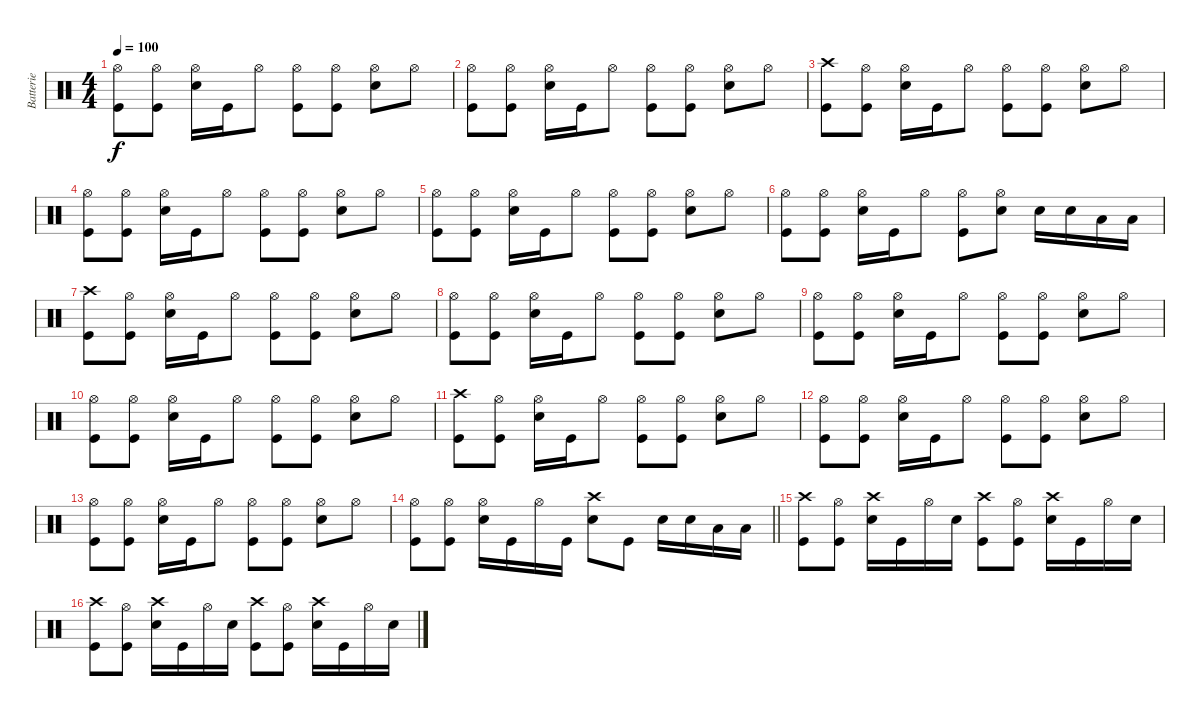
\track ("Batterie" "Batterie") {instrument percussion}
\staff {score}
\articulation defaults
\ts (4 4)
\tempo 100
\clef neutral
\ks c
("Hi-Hat (open)" "Kick (hit)").8{dy f} ("Hi-Hat (open)" "Kick (hit)").8 ("Hi-Hat (open)" "Electric Snare (hit)").16 "Kick (hit)".16 "Hi-Hat (open)".8 ("Hi-Hat (open)" "Kick (hit)").8 ("Hi-Hat (open)" "Kick (hit)").8 ("Hi-Hat (open)" "Electric Snare (hit)").8 "Hi-Hat (open)".8 |
("Hi-Hat (open)" "Kick (hit)").8 ("Hi-Hat (open)" "Kick (hit)").8 ("Hi-Hat (open)" "Electric Snare (hit)").16 "Kick (hit)".16 "Hi-Hat (open)".8 ("Hi-Hat (open)" "Kick (hit)").8 ("Hi-Hat (open)" "Kick (hit)").8 ("Hi-Hat (open)" "Electric Snare (hit)").8 "Hi-Hat (open)".8 |
("Crash high (hit)" "Kick (hit)").8 ("Hi-Hat (open)" "Kick (hit)").8 ("Hi-Hat (open)" "Electric Snare (hit)").16 "Kick (hit)".16 "Hi-Hat (open)".8 ("Hi-Hat (open)" "Kick (hit)").8 ("Hi-Hat (open)" "Kick (hit)").8 ("Hi-Hat (open)" "Electric Snare (hit)").8 "Hi-Hat (open)".8 |
("Hi-Hat (open)" "Kick (hit)").8 ("Hi-Hat (open)" "Kick (hit)").8 ("Hi-Hat (open)" "Electric Snare (hit)").16 "Kick (hit)".16 "Hi-Hat (open)".8 ("Hi-Hat (open)" "Kick (hit)").8 ("Hi-Hat (open)" "Kick (hit)").8 ("Hi-Hat (open)" "Electric Snare (hit)").8 "Hi-Hat (open)".8 |
("Hi-Hat (open)" "Kick (hit)").8 ("Hi-Hat (open)" "Kick (hit)").8 ("Hi-Hat (open)" "Electric Snare (hit)").16 "Kick (hit)".16 "Hi-Hat (open)".8 ("Hi-Hat (open)" "Kick (hit)").8 ("Hi-Hat (open)" "Kick (hit)").8 ("Hi-Hat (open)" "Electric Snare (hit)").8 "Hi-Hat (open)".8 |
("Hi-Hat (open)" "Kick (hit)").8 ("Hi-Hat (open)" "Kick (hit)").8 ("Hi-Hat (open)" "Electric Snare (hit)").16 "Kick (hit)".16 "Hi-Hat (open)".8 ("Hi-Hat (open)" "Kick (hit)").8 ("Hi-Hat (open)" "Electric Snare (hit)").8 "Electric Snare (hit)".16 "Electric Snare (hit)".16 "Low Tom (hit)".16 "Low Tom (hit)".16 |
("Crash high (hit)" "Kick (hit)").8 ("Hi-Hat (open)" "Kick (hit)").8 ("Hi-Hat (open)" "Electric Snare (hit)").16 "Kick (hit)".16 "Hi-Hat (open)".8 ("Hi-Hat (open)" "Kick (hit)").8 ("Hi-Hat (open)" "Kick (hit)").8 ("Hi-Hat (open)" "Electric Snare (hit)").8 "Hi-Hat (open)".8 |
("Hi-Hat (open)" "Kick (hit)").8 ("Hi-Hat (open)" "Kick (hit)").8 ("Hi-Hat (open)" "Electric Snare (hit)").16 "Kick (hit)".16 "Hi-Hat (open)".8 ("Hi-Hat (open)" "Kick (hit)").8 ("Hi-Hat (open)" "Kick (hit)").8 ("Hi-Hat (open)" "Electric Snare (hit)").8 "Hi-Hat (open)".8 |
("Hi-Hat (open)" "Kick (hit)").8 ("Hi-Hat (open)" "Kick (hit)").8 ("Hi-Hat (open)" "Electric Snare (hit)").16 "Kick (hit)".16 "Hi-Hat (open)".8 ("Hi-Hat (open)" "Kick (hit)").8 ("Hi-Hat (open)" "Kick (hit)").8 ("Hi-Hat (open)" "Electric Snare (hit)").8 "Hi-Hat (open)".8 |
("Hi-Hat (open)" "Kick (hit)").8 ("Hi-Hat (open)" "Kick (hit)").8 ("Hi-Hat (open)" "Electric Snare (hit)").16 "Kick (hit)".16 "Hi-Hat (open)".8 ("Hi-Hat (open)" "Kick (hit)").8 ("Hi-Hat (open)" "Kick (hit)").8 ("Hi-Hat (open)" "Electric Snare (hit)").8 "Hi-Hat (open)".8 |
("Crash high (hit)" "Kick (hit)").8 ("Hi-Hat (open)" "Kick (hit)").8 ("Hi-Hat (open)" "Electric Snare (hit)").16 "Kick (hit)".16 "Hi-Hat (open)".8 ("Hi-Hat (open)" "Kick (hit)").8 ("Hi-Hat (open)" "Kick (hit)").8 ("Hi-Hat (open)" "Electric Snare (hit)").8 "Hi-Hat (open)".8 |
("Hi-Hat (open)" "Kick (hit)").8 ("Hi-Hat (open)" "Kick (hit)").8 ("Hi-Hat (open)" "Electric Snare (hit)").16 "Kick (hit)".16 "Hi-Hat (open)".8 ("Hi-Hat (open)" "Kick (hit)").8 ("Hi-Hat (open)" "Kick (hit)").8 ("Hi-Hat (open)" "Electric Snare (hit)").8 "Hi-Hat (open)".8 |
("Hi-Hat (open)" "Kick (hit)").8 ("Hi-Hat (open)" "Kick (hit)").8 ("Hi-Hat (open)" "Electric Snare (hit)").16 "Kick (hit)".16 "Hi-Hat (open)".8 ("Hi-Hat (open)" "Kick (hit)").8 ("Hi-Hat (open)" "Kick (hit)").8 ("Hi-Hat (open)" "Electric Snare (hit)").8 "Hi-Hat (open)".8 |
\barLineRight lightlight
("Hi-Hat (open)" "Kick (hit)").8 ("Hi-Hat (open)" "Kick (hit)").8 ("Hi-Hat (open)" "Electric Snare (hit)").16 "Kick (hit)".16 "Hi-Hat (open)".16 "Kick (hit)".16 ("Crash high (hit)" "Electric Snare (hit)").8 "Kick (hit)".8 "Electric Snare (hit)".16 "Electric Snare (hit)".16 "Low Tom (hit)".16 "Low Tom (hit)".16 |
("Crash high (hit)" "Kick (hit)").8 ("Hi-Hat (open)" "Kick (hit)").8 ("Crash high (hit)" "Electric Snare (hit)").16 "Kick (hit)".16 "Hi-Hat (open)".16 "Electric Snare (hit)".16 ("Crash high (hit)" "Kick (hit)").8 ("Hi-Hat (open)" "Kick (hit)").8 ("Crash high (hit)" "Electric Snare (hit)").16 "Kick (hit)".16 "Hi-Hat (open)".16 "Electric Snare (hit)".16 |
("Crash high (hit)" "Kick (hit)").8 ("Hi-Hat (open)" "Kick (hit)").8 ("Crash high (hit)" "Electric Snare (hit)").16 "Kick (hit)".16 "Hi-Hat (open)".16 "Electric Snare (hit)".16 ("Crash high (hit)" "Kick (hit)").8 ("Hi-Hat (open)" "Kick (hit)").8 ("Crash high (hit)" "Electric Snare (hit)").16 "Kick (hit)".16 "Hi-Hat (open)".16 "Electric Snare (hit)".16
